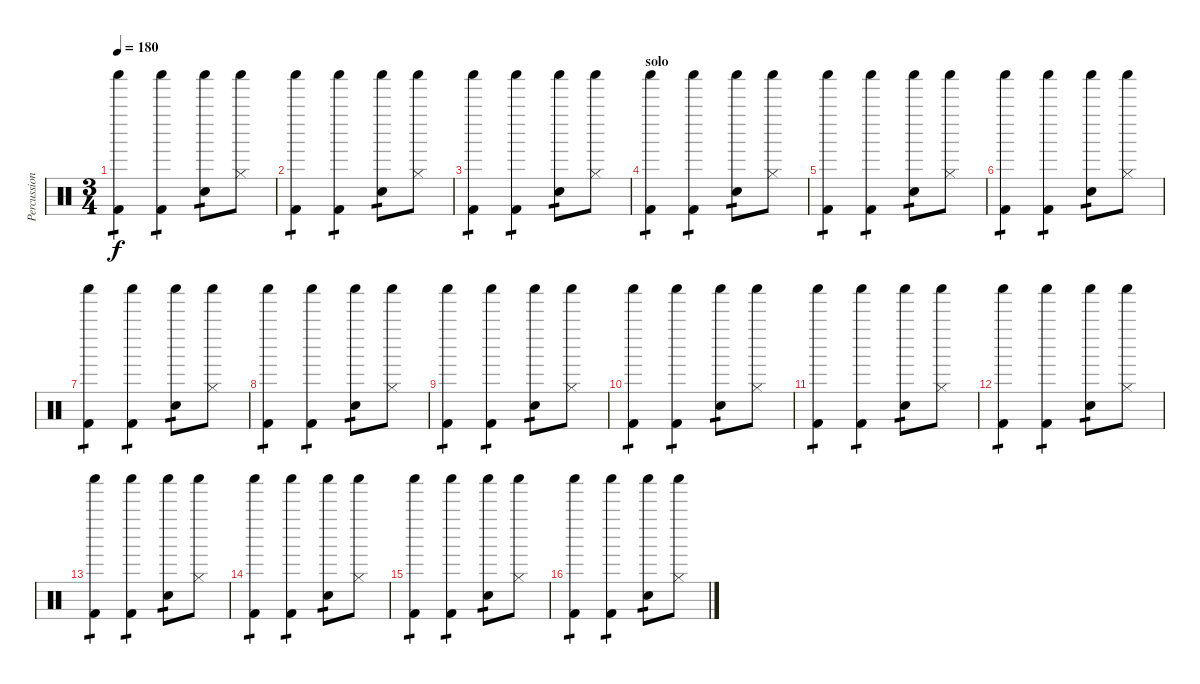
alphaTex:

\track ("Percussions" "Percussion") {instrument percussion}
\staff {score}
\articulation defaults
\ts (3 4)
\tempo 180
\clef neutral
\ks c
("Kick (hit) 2" "Shaker (hit)").4{tp 1 dy f} ("Kick (hit) 2" "Shaker (hit)").4{tp 1} ("Shaker (hit)" "Snare (hit) 2").8{tp 1} ("Shaker (hit)" "Hi-Hat (closed)").8 |
("Kick (hit) 2" "Shaker (hit)").4{tp 1} ("Kick (hit) 2" "Shaker (hit)").4{tp 1} ("Shaker (hit)" "Snare (hit) 2").8{tp 1} ("Shaker (hit)" "Hi-Hat (closed)").8 |
("Kick (hit) 2" "Shaker (hit)").4{tp 1} ("Kick (hit) 2" "Shaker (hit)").4{tp 1} ("Shaker (hit)" "Snare (hit) 2").8{tp 1} ("Shaker (hit)" "Hi-Hat (closed)").8 |
\section ("" "solo")
("Kick (hit) 2" "Shaker (hit)").4{tp 1} ("Kick (hit) 2" "Shaker (hit)").4{tp 1} ("Shaker (hit)" "Snare (hit) 2").8{tp 1} ("Shaker (hit)" "Hi-Hat (closed)").8 |
("Kick (hit) 2" "Shaker (hit)").4{tp 1} ("Kick (hit) 2" "Shaker (hit)").4{tp 1} ("Shaker (hit)" "Snare (hit) 2").8{tp 1} ("Shaker (hit)" "Hi-Hat (closed)").8 |
("Kick (hit) 2" "Shaker (hit)").4{tp 1} ("Kick (hit) 2" "Shaker (hit)").4{tp 1} ("Shaker (hit)" "Snare (hit) 2").8{tp 1} ("Shaker (hit)" "Hi-Hat (closed)").8 |
("Kick (hit) 2" "Shaker (hit)").4{tp 1} ("Kick (hit) 2" "Shaker (hit)").4{tp 1} ("Shaker (hit)" "Snare (hit) 2").8{tp 1} ("Shaker (hit)" "Hi-Hat (closed)").8 |
("Kick (hit) 2" "Shaker (hit)").4{tp 1} ("Kick (hit) 2" "Shaker (hit)").4{tp 1} ("Shaker (hit)" "Snare (hit) 2").8{tp 1} ("Shaker (hit)" "Hi-Hat (closed)").8 |
("Kick (hit) 2" "Shaker (hit)").4{tp 1} ("Kick (hit) 2" "Shaker (hit)").4{tp 1} ("Shaker (hit)" "Snare (hit) 2").8{tp 1} ("Shaker (hit)" "Hi-Hat (closed)").8 |
("Kick (hit) 2" "Shaker (hit)").4{tp 1} ("Kick (hit) 2" "Shaker (hit)").4{tp 1} ("Shaker (hit)" "Snare (hit) 2").8{tp 1} ("Shaker (hit)" "Hi-Hat (closed)").8 |
("Kick (hit) 2" "Shaker (hit)").4{tp 1} ("Kick (hit) 2" "Shaker (hit)").4{tp 1} ("Shaker (hit)" "Snare (hit) 2").8{tp 1} ("Shaker (hit)" "Hi-Hat (closed)").8 |
("Kick (hit) 2" "Shaker (hit)").4{tp 1} ("Kick (hit) 2" "Shaker (hit)").4{tp 1} ("Shaker (hit)" "Snare (hit) 2").8{tp 1} ("Shaker (hit)" "Hi-Hat (closed)").8 |
("Kick (hit) 2" "Shaker (hit)").4{tp 1} ("Kick (hit) 2" "Shaker (hit)").4{tp 1} ("Shaker (hit)" "Snare (hit) 2").8{tp 1} ("Shaker (hit)" "Hi-Hat (closed)").8 |
("Kick (hit) 2" "Shaker (hit)").4{tp 1} ("Kick (hit) 2" "Shaker (hit)").4{tp 1} ("Shaker (hit)" "Snare (hit) 2").8{tp 1} ("Shaker (hit)" "Hi-Hat (closed)").8 |
("Kick (hit) 2" "Shaker (hit)").4{tp 1} ("Kick (hit) 2" "Shaker (hit)").4{tp 1} ("Shaker (hit)" "Snare (hit) 2").8{tp 1} ("Shaker (hit)" "Hi-Hat (closed)").8 |
("Kick (hit) 2" "Shaker (hit)").4{tp 1} ("Kick (hit) 2" "Shaker (hit)").4{tp 1} ("Shaker (hit)" "Snare (hit) 2").8{tp 1} ("Shaker (hit)" "Hi-Hat (closed)").8
